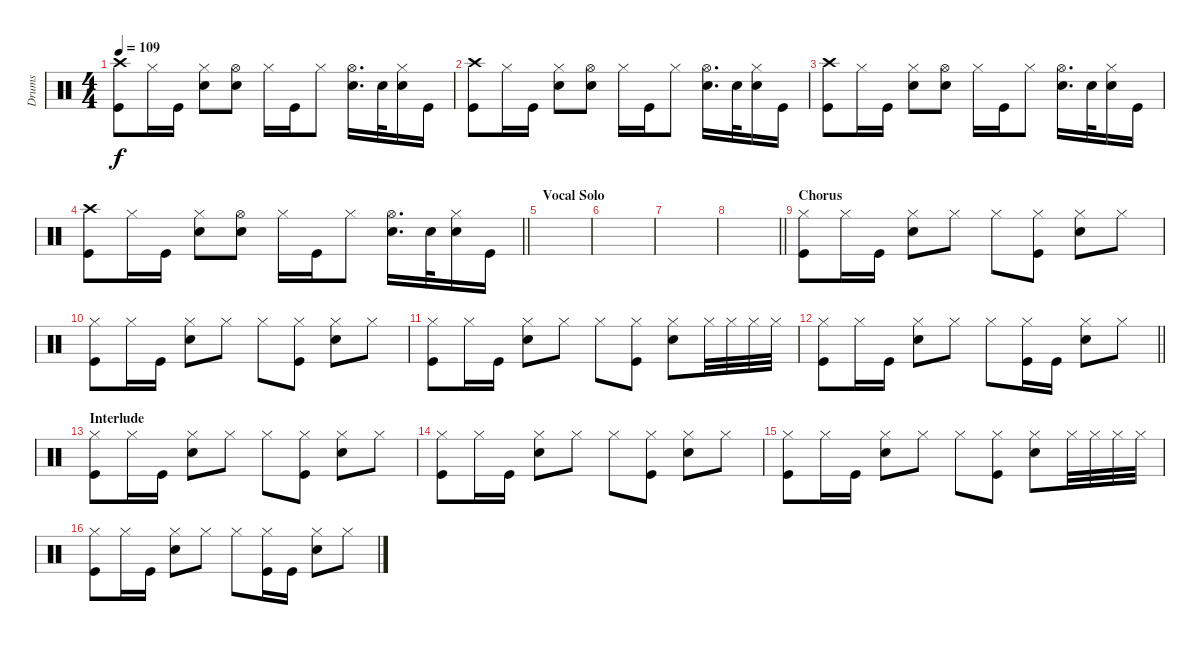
\track ("Drums" "Drums") {instrument percussion}
\staff {score}
\articulation defaults
\ts (4 4)
\tempo 109
\clef neutral
\ks c
("Crash high (hit)" "Kick (hit)").8{dy f} "Hi-Hat (closed)".16 "Kick (hit)".16 ("Hi-Hat (closed)" "Electric Snare (hit)").8 ("Hi-Hat (open)" "Electric Snare (hit)").8 "Hi-Hat (closed)".16 "Kick (hit)".16 "Hi-Hat (closed)".8 ("Hi-Hat (open)" "Electric Snare (hit)").16{d} "Electric Snare (hit)".32 ("Hi-Hat (closed)" "Electric Snare (hit)").16 "Kick (hit)".16 |
("Crash high (hit)" "Kick (hit)").8 "Hi-Hat (closed)".16 "Kick (hit)".16 ("Hi-Hat (closed)" "Electric Snare (hit)").8 ("Hi-Hat (open)" "Electric Snare (hit)").8 "Hi-Hat (closed)".16 "Kick (hit)".16 "Hi-Hat (closed)".8 ("Hi-Hat (open)" "Electric Snare (hit)").16{d} "Electric Snare (hit)".32 ("Hi-Hat (closed)" "Electric Snare (hit)").16 "Kick (hit)".16 |
("Crash high (hit)" "Kick (hit)").8 "Hi-Hat (closed)".16 "Kick (hit)".16 ("Hi-Hat (closed)" "Electric Snare (hit)").8 ("Hi-Hat (open)" "Electric Snare (hit)").8 "Hi-Hat (closed)".16 "Kick (hit)".16 "Hi-Hat (closed)".8 ("Hi-Hat (open)" "Electric Snare (hit)").16{d} "Electric Snare (hit)".32 ("Hi-Hat (closed)" "Electric Snare (hit)").16 "Kick (hit)".16 |
\barLineRight lightlight
("Crash high (hit)" "Kick (hit)").8 "Hi-Hat (closed)".16 "Kick (hit)".16 ("Hi-Hat (closed)" "Electric Snare (hit)").8 ("Hi-Hat (open)" "Electric Snare (hit)").8 "Hi-Hat (closed)".16 "Kick (hit)".16 "Hi-Hat (closed)".8 ("Hi-Hat (open)" "Electric Snare (hit)").16{d} "Electric Snare (hit)".32 ("Hi-Hat (closed)" "Electric Snare (hit)").16 "Kick (hit)".16 |
\section ("" "Vocal Solo")
|
|
|
\barLineRight lightlight
|
\section ("" "Chorus")
("Hi-Hat (closed)" "Kick (hit)").8 "Hi-Hat (closed)".16 "Kick (hit)".16 ("Hi-Hat (closed)" "Snare (hit) 2").8 "Hi-Hat (closed)".8 "Hi-Hat (closed)".8 ("Hi-Hat (closed)" "Kick (hit)").8 ("Hi-Hat (closed)" "Snare (hit) 2").8 "Hi-Hat (closed)".8 |
("Hi-Hat (closed)" "Kick (hit)").8 "Hi-Hat (closed)".16 "Kick (hit)".16 ("Hi-Hat (closed)" "Snare (hit) 2").8 "Hi-Hat (closed)".8 "Hi-Hat (closed)".8 ("Hi-Hat (closed)" "Kick (hit)").8 ("Hi-Hat (closed)" "Snare (hit) 2").8 "Hi-Hat (closed)".8 |
("Hi-Hat (closed)" "Kick (hit)").8 "Hi-Hat (closed)".16 "Kick (hit)".16 ("Hi-Hat (closed)" "Snare (hit) 2").8 "Hi-Hat (closed)".8 "Hi-Hat (closed)".8 ("Hi-Hat (closed)" "Kick (hit)").8 ("Hi-Hat (closed)" "Snare (hit) 2").8 "Hi-Hat (closed)".32 "Hi-Hat (closed)".32 "Hi-Hat (closed)".32 "Hi-Hat (closed)".32 |
\barLineRight lightlight
("Hi-Hat (closed)" "Kick (hit)").8 "Hi-Hat (closed)".16 "Kick (hit)".16 ("Hi-Hat (closed)" "Snare (hit) 2").8 "Hi-Hat (closed)".8 "Hi-Hat (closed)".8 ("Hi-Hat (closed)" "Kick (hit)").16 "Kick (hit)".16 ("Hi-Hat (closed)" "Snare (hit) 2").8 "Hi-Hat (closed)".8 |
\section ("" "Interlude")
("Hi-Hat (closed)" "Kick (hit)").8{volume 3} "Hi-Hat (closed)".16{volume 6} "Kick (hit)".16 ("Hi-Hat (closed)" "Snare (hit) 2").8 "Hi-Hat (closed)".8 "Hi-Hat (closed)".8 ("Hi-Hat (closed)" "Kick (hit)").8 ("Hi-Hat (closed)" "Snare (hit) 2").8 "Hi-Hat (closed)".8 |
("Hi-Hat (closed)" "Kick (hit)").8 "Hi-Hat (closed)".16 "Kick (hit)".16 ("Hi-Hat (closed)" "Snare (hit) 2").8 "Hi-Hat (closed)".8 "Hi-Hat (closed)".8 ("Hi-Hat (closed)" "Kick (hit)").8 ("Hi-Hat (closed)" "Snare (hit) 2").8 "Hi-Hat (closed)".8 |
("Hi-Hat (closed)" "Kick (hit)").8 "Hi-Hat (closed)".16 "Kick (hit)".16 ("Hi-Hat (closed)" "Snare (hit) 2").8 "Hi-Hat (closed)".8 "Hi-Hat (closed)".8 ("Hi-Hat (closed)" "Kick (hit)").8 ("Hi-Hat (closed)" "Snare (hit) 2").8 "Hi-Hat (closed)".32 "Hi-Hat (closed)".32 "Hi-Hat (closed)".32 "Hi-Hat (closed)".32 |
("Hi-Hat (closed)" "Kick (hit)").8 "Hi-Hat (closed)".16 "Kick (hit)".16 ("Hi-Hat (closed)" "Snare (hit) 2").8 "Hi-Hat (closed)".8 "Hi-Hat (closed)".8 ("Hi-Hat (closed)" "Kick (hit)").16 "Kick (hit)".16 ("Hi-Hat (closed)" "Snare (hit) 2").8 "Hi-Hat (closed)".8
